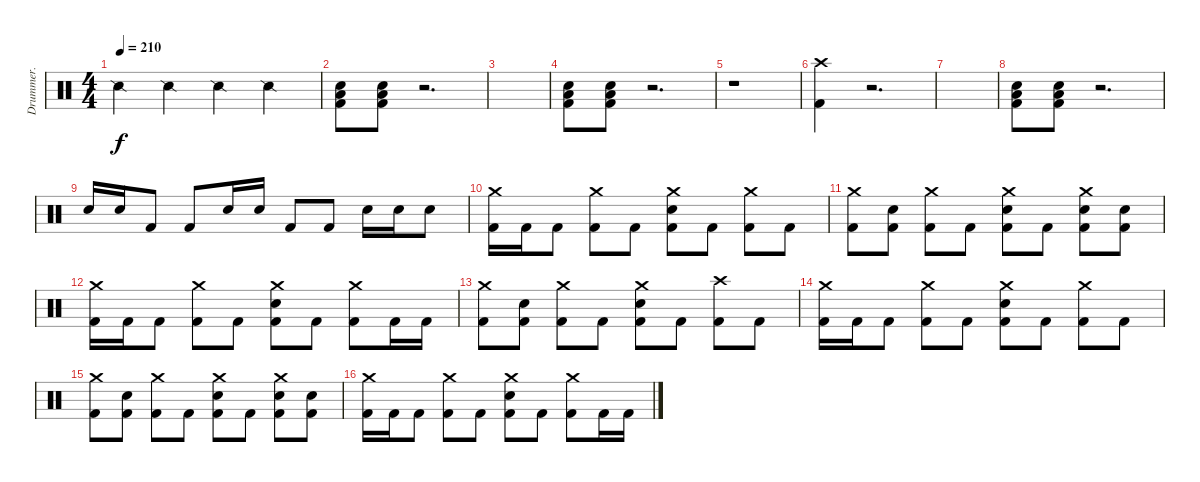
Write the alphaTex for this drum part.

\track ("Drummer." "Drummer.") {instrument percussion}
\staff {score}
\articulation defaults
\ts (4 4)
\tempo 210
\clef neutral
\ks c "Snare (side stick) 2".4{dy f} "Snare (side stick) 2".4 "Snare (side stick) 2".4 "Snare (side stick) 2".4
|
("Snare (hit) 2" "Kick (hit) 2" "Low Floor Tom (hit)").8 ("Snare (hit) 2" "Kick (hit) 2" "Low Floor Tom (hit)").8 r.2{d} |
|
("Snare (hit) 2" "Kick (hit) 2" "Low Floor Tom (hit)").8 ("Snare (hit) 2" "Kick (hit) 2" "Low Floor Tom (hit)").8 r.2{d} |
r.1 |
("Crash high (hit)" "Kick (hit) 2").4 r.2{d} |
|
("Snare (hit) 2" "Kick (hit) 2" "Low Floor Tom (hit)").8 ("Snare (hit) 2" "Kick (hit) 2" "Low Floor Tom (hit)").8 r.2{d} |
"Snare (hit) 2".16 "Snare (hit) 2".16 "Kick (hit) 2".8 "Kick (hit) 2".8 "Snare (hit) 2".16 "Snare (hit) 2".16 "Kick (hit) 2".8 "Kick (hit) 2".8 "Snare (hit) 2".16 "Snare (hit) 2".16 "Snare (hit) 2".8 |
("Crash medium (hit)" "Kick (hit) 2").16 "Kick (hit) 2".16 "Kick (hit) 2".8 ("Crash medium (hit)" "Kick (hit) 2").8 "Kick (hit) 2".8 ("Crash medium (hit)" "Snare (hit) 2" "Kick (hit) 2").8 "Kick (hit) 2".8 ("Crash medium (hit)" "Kick (hit) 2").8 "Kick (hit) 2".8 |
("Crash medium (hit)" "Kick (hit) 2").8 ("Snare (hit) 2" "Kick (hit) 2").8 ("Crash medium (hit)" "Kick (hit) 2").8 "Kick (hit) 2".8 ("Crash medium (hit)" "Snare (hit) 2" "Kick (hit) 2").8 "Kick (hit) 2".8 ("Crash medium (hit)" "Snare (hit) 2" "Kick (hit) 2").8 ("Snare (hit) 2" "Kick (hit) 2").8 |
("Crash medium (hit)" "Kick (hit) 2").16 "Kick (hit) 2".16 "Kick (hit) 2".8 ("Crash medium (hit)" "Kick (hit) 2").8 "Kick (hit) 2".8 ("Crash medium (hit)" "Snare (hit) 2" "Kick (hit) 2").8 "Kick (hit) 2".8 ("Crash medium (hit)" "Kick (hit) 2").8 "Kick (hit) 2".16 "Kick (hit) 2".16 |
("Crash medium (hit)" "Kick (hit) 2").8 ("Snare (hit) 2" "Kick (hit) 2").8 ("Crash medium (hit)" "Kick (hit) 2").8 "Kick (hit) 2".8 ("Crash medium (hit)" "Snare (hit) 2" "Kick (hit) 2").8 "Kick (hit) 2".8 ("Crash high (hit)" "Kick (hit) 2").8 "Kick (hit) 2".8 |
("Crash medium (hit)" "Kick (hit) 2").16 "Kick (hit) 2".16 "Kick (hit) 2".8 ("Crash medium (hit)" "Kick (hit) 2").8 "Kick (hit) 2".8 ("Crash medium (hit)" "Snare (hit) 2" "Kick (hit) 2").8 "Kick (hit) 2".8 ("Crash medium (hit)" "Kick (hit) 2").8 "Kick (hit) 2".8 |
("Crash medium (hit)" "Kick (hit) 2").8 ("Snare (hit) 2" "Kick (hit) 2").8 ("Crash medium (hit)" "Kick (hit) 2").8 "Kick (hit) 2".8 ("Crash medium (hit)" "Snare (hit) 2" "Kick (hit) 2").8 "Kick (hit) 2".8 ("Crash medium (hit)" "Snare (hit) 2" "Kick (hit) 2").8 ("Snare (hit) 2" "Kick (hit) 2").8 |
("Crash medium (hit)" "Kick (hit) 2").16 "Kick (hit) 2".16 "Kick (hit) 2".8 ("Crash medium (hit)" "Kick (hit) 2").8 "Kick (hit) 2".8 ("Crash medium (hit)" "Snare (hit) 2" "Kick (hit) 2").8 "Kick (hit) 2".8 ("Crash medium (hit)" "Kick (hit) 2").8 "Kick (hit) 2".16 "Kick (hit) 2".16
